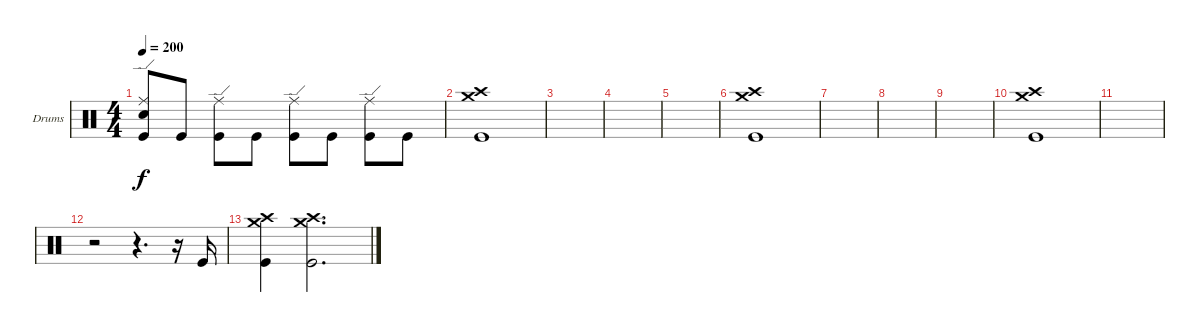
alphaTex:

\defaultSystemsLayout 4
\bracketExtendMode groupsimilarinstruments
\firstSystemTrackNameOrientation horizontal
\otherSystemsTrackNameOrientation horizontal
\track ("Drumkit" "Drums") {instrument percussion}
\staff {score}
\articulation defaults
\ts (4 4)
\tempo 200
\clef neutral
\ks c
("Kick (hit)" "Ride (edge)" "Snare (hit) 2").8{dy f} "Kick (hit)".8 ("Ride (edge)" "Kick (hit)").8 "Kick (hit)".8 ("Ride (edge)" "Kick (hit)").8 "Kick (hit)".8 ("Ride (edge)" "Kick (hit)").8 "Kick (hit)".8 |
("Kick (hit)" "Crash high (hit)" "Crash medium (hit)").1 |
|
|
|
("Kick (hit)" "Crash high (hit)" "Crash medium (hit)").1 |
|
|
|
("Kick (hit)" "Crash high (hit)" "Crash medium (hit)").1 |
|
r.2 r.4{d} r.16 "Kick (hit)".16 |
("Kick (hit)" "Crash high (hit)" "Crash medium (hit)").4 ("Kick (hit)" "Crash high (hit)" "Crash medium (hit)").2{d}
